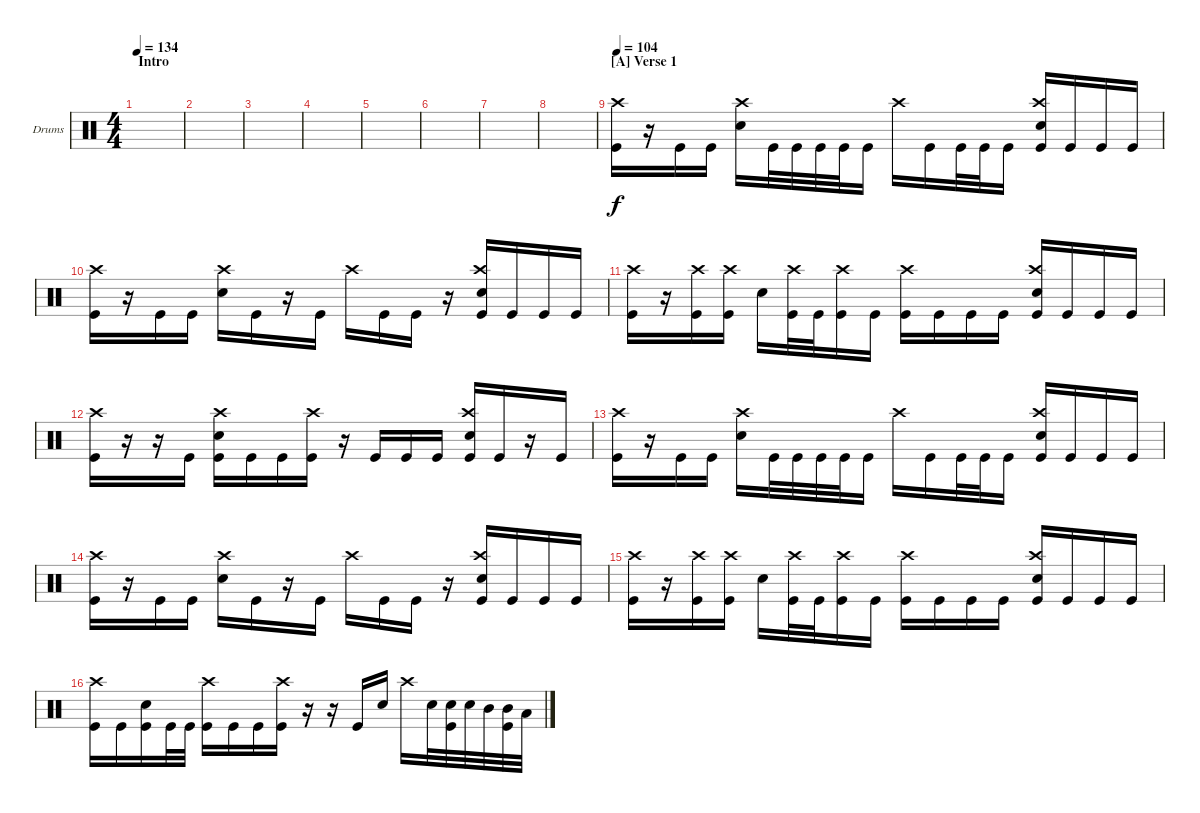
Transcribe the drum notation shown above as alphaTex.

\bracketExtendMode groupsimilarinstruments
\firstSystemTrackNameOrientation horizontal
\otherSystemsTrackNameOrientation horizontal
\track ("Drumkit" "Drums") {instrument percussion}
\staff {score}
\articulation defaults
\ts (4 4)
\beaming (8 2 2 2 2)
\section ("" "Intro")
\tempo 134
\clef neutral
\ks c
|
|
|
|
|
|
|
|
\section ("A" "Verse 1")
\tempo 104
("Kick (hit)" "Crash high (hit)").16 r.16 "Kick (hit)".16 "Kick (hit)".16 ("Snare (hit) 2" "Crash high (hit)").16 "Kick (hit)".32 "Kick (hit)".32 "Kick (hit)".32 "Kick (hit)".32 "Kick (hit)".16 "Crash high (hit)".16 "Kick (hit)".16 "Kick (hit)".32 "Kick (hit)".32 "Kick (hit)".16 ("Snare (hit) 2" "Kick (hit)" "Crash high (hit)").16 "Kick (hit)".16 "Kick (hit)".16 "Kick (hit)".16 |
("Kick (hit)" "Crash high (hit)").16 r.16 "Kick (hit)".16 "Kick (hit)".16 ("Snare (hit) 2" "Crash high (hit)").16 "Kick (hit)".16 r.16 "Kick (hit)".16 "Crash high (hit)".16 "Kick (hit)".16 "Kick (hit)".16 r.16 ("Snare (hit) 2" "Kick (hit)" "Crash high (hit)").16 "Kick (hit)".16 "Kick (hit)".16 "Kick (hit)".16 |
("Kick (hit)" "Crash high (hit)").16 r.16 ("Kick (hit)" "Crash high (hit)").16 ("Kick (hit)" "Crash high (hit)").16 "Snare (hit) 2".16 ("Kick (hit)" "Crash high (hit)").32 "Kick (hit)".32 ("Kick (hit)" "Crash high (hit)").16 "Kick (hit)".16 ("Kick (hit)" "Crash high (hit)").16 "Kick (hit)".16 "Kick (hit)".16 "Kick (hit)".16 ("Snare (hit) 2" "Kick (hit)" "Crash high (hit)").16 "Kick (hit)".16 "Kick (hit)".16 "Kick (hit)".16 |
("Kick (hit)" "Crash high (hit)").16 r.16 r.16 "Kick (hit)".16 ("Snare (hit) 2" "Kick (hit)" "Crash high (hit)").16 "Kick (hit)".16 "Kick (hit)".16 ("Kick (hit)" "Crash high (hit)").16 r.16 "Kick (hit)".16 "Kick (hit)".16 "Kick (hit)".16 ("Snare (hit) 2" "Kick (hit)" "Crash high (hit)").16 "Kick (hit)".16 r.16 "Kick (hit)".16 |
("Kick (hit)" "Crash high (hit)").16 r.16 "Kick (hit)".16 "Kick (hit)".16 ("Snare (hit) 2" "Crash high (hit)").16 "Kick (hit)".32 "Kick (hit)".32 "Kick (hit)".32 "Kick (hit)".32 "Kick (hit)".16 "Crash high (hit)".16 "Kick (hit)".16 "Kick (hit)".32 "Kick (hit)".32 "Kick (hit)".16 ("Snare (hit) 2" "Kick (hit)" "Crash high (hit)").16 "Kick (hit)".16 "Kick (hit)".16 "Kick (hit)".16 |
("Kick (hit)" "Crash high (hit)").16 r.16 "Kick (hit)".16 "Kick (hit)".16 ("Snare (hit) 2" "Crash high (hit)").16 "Kick (hit)".16 r.16 "Kick (hit)".16 "Crash high (hit)".16 "Kick (hit)".16 "Kick (hit)".16 r.16 ("Snare (hit) 2" "Kick (hit)" "Crash high (hit)").16 "Kick (hit)".16 "Kick (hit)".16 "Kick (hit)".16 |
("Kick (hit)" "Crash high (hit)").16 r.16 ("Kick (hit)" "Crash high (hit)").16 ("Kick (hit)" "Crash high (hit)").16 "Snare (hit) 2".16 ("Kick (hit)" "Crash high (hit)").32 "Kick (hit)".32 ("Kick (hit)" "Crash high (hit)").16 "Kick (hit)".16 ("Kick (hit)" "Crash high (hit)").16 "Kick (hit)".16 "Kick (hit)".16 "Kick (hit)".16 ("Snare (hit) 2" "Kick (hit)" "Crash high (hit)").16 "Kick (hit)".16 "Kick (hit)".16 "Kick (hit)".16 |
("Kick (hit)" "Crash high (hit)").16 "Kick (hit)".16 ("Kick (hit)" "Snare (hit) 2").16 "Kick (hit)".32 "Kick (hit)".32 ("Kick (hit)" "Crash high (hit)").16 "Kick (hit)".16 "Kick (hit)".16 ("Kick (hit)" "Crash high (hit)").16 r.16 r.16 "Kick (hit)".16 "Snare (hit) 2".16 "Crash high (hit)".16 "Snare (hit) 2".32 ("Snare (hit) 2" "Kick (hit)").32 "Snare (hit) 2".32 "Mid Tom (hit)".32 ("Kick (hit)" "Mid Tom (hit)").32 "Low Tom (hit)".32
